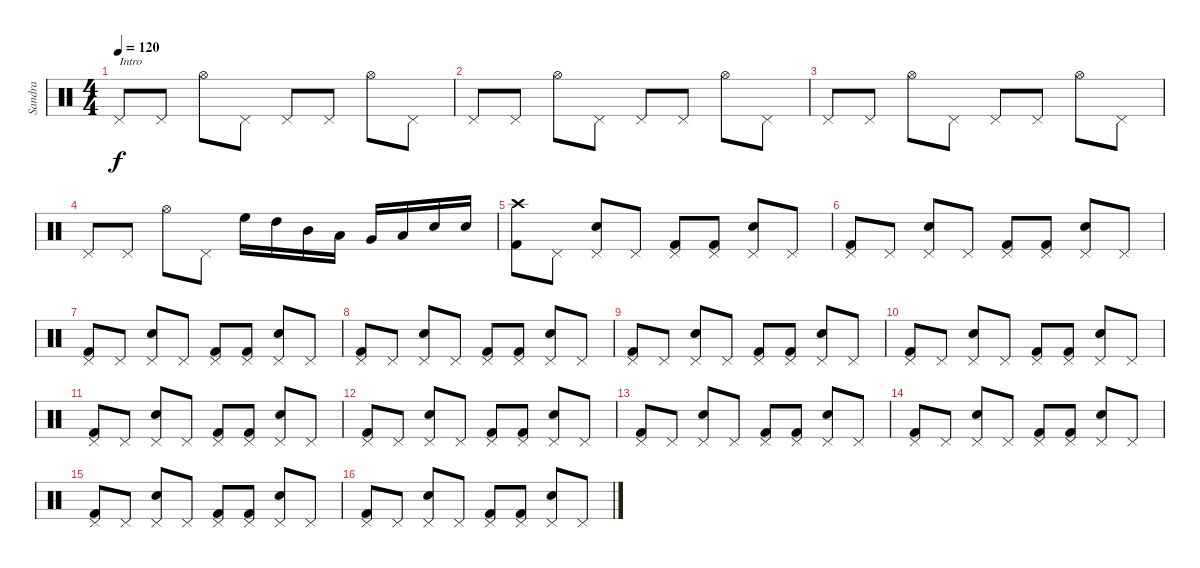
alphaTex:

\track ("Sandra" "Sandra") {instrument percussion}
\staff {score}
\articulation defaults
\ts (4 4)
\tempo 120
\clef neutral
\ks c "Pedal Hi-Hat (hit)".8{txt "Intro" dy f} "Pedal Hi-Hat (hit)".8 "Hi-Hat (open)".8 "Pedal Hi-Hat (hit)".8 "Pedal Hi-Hat (hit)".8 "Pedal Hi-Hat (hit)".8 "Hi-Hat (open)".8 "Pedal Hi-Hat (hit)".8
|
"Pedal Hi-Hat (hit)".8 "Pedal Hi-Hat (hit)".8 "Hi-Hat (open)".8 "Pedal Hi-Hat (hit)".8 "Pedal Hi-Hat (hit)".8 "Pedal Hi-Hat (hit)".8 "Hi-Hat (open)".8 "Pedal Hi-Hat (hit)".8 |
"Pedal Hi-Hat (hit)".8 "Pedal Hi-Hat (hit)".8 "Hi-Hat (open)".8 "Pedal Hi-Hat (hit)".8 "Pedal Hi-Hat (hit)".8 "Pedal Hi-Hat (hit)".8 "Hi-Hat (open)".8 "Pedal Hi-Hat (hit)".8 |
"Pedal Hi-Hat (hit)".8 "Pedal Hi-Hat (hit)".8 "Hi-Hat (open)".8 "Pedal Hi-Hat (hit)".8 "High Floor Tom (hit)".16 "High Tom (hit)".16 "Mid Tom (hit)".16 "Low Tom (hit)".16 "Very Low Tom (hit)".16 "Low Floor Tom (hit)".16 "Snare (hit) 2".16 "Snare (hit) 2".16 |
("Crash high (hit)" "Kick (hit) 2").8 "Pedal Hi-Hat (hit)".8 ("Pedal Hi-Hat (hit)" "Snare (hit) 2").8 "Pedal Hi-Hat (hit)".8 ("Pedal Hi-Hat (hit)" "Kick (hit) 2").8 ("Pedal Hi-Hat (hit)" "Kick (hit) 2").8 ("Pedal Hi-Hat (hit)" "Snare (hit) 2").8 "Pedal Hi-Hat (hit)".8 |
("Pedal Hi-Hat (hit)" "Kick (hit) 2").8 "Pedal Hi-Hat (hit)".8 ("Pedal Hi-Hat (hit)" "Snare (hit) 2").8 "Pedal Hi-Hat (hit)".8 ("Pedal Hi-Hat (hit)" "Kick (hit) 2").8 ("Pedal Hi-Hat (hit)" "Kick (hit) 2").8 ("Pedal Hi-Hat (hit)" "Snare (hit) 2").8 "Pedal Hi-Hat (hit)".8 |
("Pedal Hi-Hat (hit)" "Kick (hit) 2").8 "Pedal Hi-Hat (hit)".8 ("Pedal Hi-Hat (hit)" "Snare (hit) 2").8 "Pedal Hi-Hat (hit)".8 ("Pedal Hi-Hat (hit)" "Kick (hit) 2").8 ("Pedal Hi-Hat (hit)" "Kick (hit) 2").8 ("Pedal Hi-Hat (hit)" "Snare (hit) 2").8 "Pedal Hi-Hat (hit)".8 |
("Pedal Hi-Hat (hit)" "Kick (hit) 2").8 "Pedal Hi-Hat (hit)".8 ("Pedal Hi-Hat (hit)" "Snare (hit) 2").8 "Pedal Hi-Hat (hit)".8 ("Pedal Hi-Hat (hit)" "Kick (hit) 2").8 ("Pedal Hi-Hat (hit)" "Kick (hit) 2").8 ("Pedal Hi-Hat (hit)" "Snare (hit) 2").8 "Pedal Hi-Hat (hit)".8 |
("Pedal Hi-Hat (hit)" "Kick (hit) 2").8 "Pedal Hi-Hat (hit)".8 ("Pedal Hi-Hat (hit)" "Snare (hit) 2").8 "Pedal Hi-Hat (hit)".8 ("Pedal Hi-Hat (hit)" "Kick (hit) 2").8 ("Pedal Hi-Hat (hit)" "Kick (hit) 2").8 ("Pedal Hi-Hat (hit)" "Snare (hit) 2").8 "Pedal Hi-Hat (hit)".8 |
("Pedal Hi-Hat (hit)" "Kick (hit) 2").8 "Pedal Hi-Hat (hit)".8 ("Pedal Hi-Hat (hit)" "Snare (hit) 2").8 "Pedal Hi-Hat (hit)".8 ("Pedal Hi-Hat (hit)" "Kick (hit) 2").8 ("Pedal Hi-Hat (hit)" "Kick (hit) 2").8 ("Pedal Hi-Hat (hit)" "Snare (hit) 2").8 "Pedal Hi-Hat (hit)".8 |
("Pedal Hi-Hat (hit)" "Kick (hit) 2").8 "Pedal Hi-Hat (hit)".8 ("Pedal Hi-Hat (hit)" "Snare (hit) 2").8 "Pedal Hi-Hat (hit)".8 ("Pedal Hi-Hat (hit)" "Kick (hit) 2").8 ("Pedal Hi-Hat (hit)" "Kick (hit) 2").8 ("Pedal Hi-Hat (hit)" "Snare (hit) 2").8 "Pedal Hi-Hat (hit)".8 |
("Pedal Hi-Hat (hit)" "Kick (hit) 2").8 "Pedal Hi-Hat (hit)".8 ("Pedal Hi-Hat (hit)" "Snare (hit) 2").8 "Pedal Hi-Hat (hit)".8 ("Pedal Hi-Hat (hit)" "Kick (hit) 2").8 ("Pedal Hi-Hat (hit)" "Kick (hit) 2").8 ("Pedal Hi-Hat (hit)" "Snare (hit) 2").8 "Pedal Hi-Hat (hit)".8 |
("Pedal Hi-Hat (hit)" "Kick (hit) 2").8 "Pedal Hi-Hat (hit)".8 ("Pedal Hi-Hat (hit)" "Snare (hit) 2").8 "Pedal Hi-Hat (hit)".8 ("Pedal Hi-Hat (hit)" "Kick (hit) 2").8 ("Pedal Hi-Hat (hit)" "Kick (hit) 2").8 ("Pedal Hi-Hat (hit)" "Snare (hit) 2").8 "Pedal Hi-Hat (hit)".8 |
("Pedal Hi-Hat (hit)" "Kick (hit) 2").8 "Pedal Hi-Hat (hit)".8 ("Pedal Hi-Hat (hit)" "Snare (hit) 2").8 "Pedal Hi-Hat (hit)".8 ("Pedal Hi-Hat (hit)" "Kick (hit) 2").8 ("Pedal Hi-Hat (hit)" "Kick (hit) 2").8 ("Pedal Hi-Hat (hit)" "Snare (hit) 2").8 "Pedal Hi-Hat (hit)".8 |
("Pedal Hi-Hat (hit)" "Kick (hit) 2").8 "Pedal Hi-Hat (hit)".8 ("Pedal Hi-Hat (hit)" "Snare (hit) 2").8 "Pedal Hi-Hat (hit)".8 ("Pedal Hi-Hat (hit)" "Kick (hit) 2").8 ("Pedal Hi-Hat (hit)" "Kick (hit) 2").8 ("Pedal Hi-Hat (hit)" "Snare (hit) 2").8 "Pedal Hi-Hat (hit)".8 |
("Pedal Hi-Hat (hit)" "Kick (hit) 2").8 "Pedal Hi-Hat (hit)".8 ("Pedal Hi-Hat (hit)" "Snare (hit) 2").8 "Pedal Hi-Hat (hit)".8 ("Pedal Hi-Hat (hit)" "Kick (hit) 2").8 ("Pedal Hi-Hat (hit)" "Kick (hit) 2").8 ("Pedal Hi-Hat (hit)" "Snare (hit) 2").8 "Pedal Hi-Hat (hit)".8
